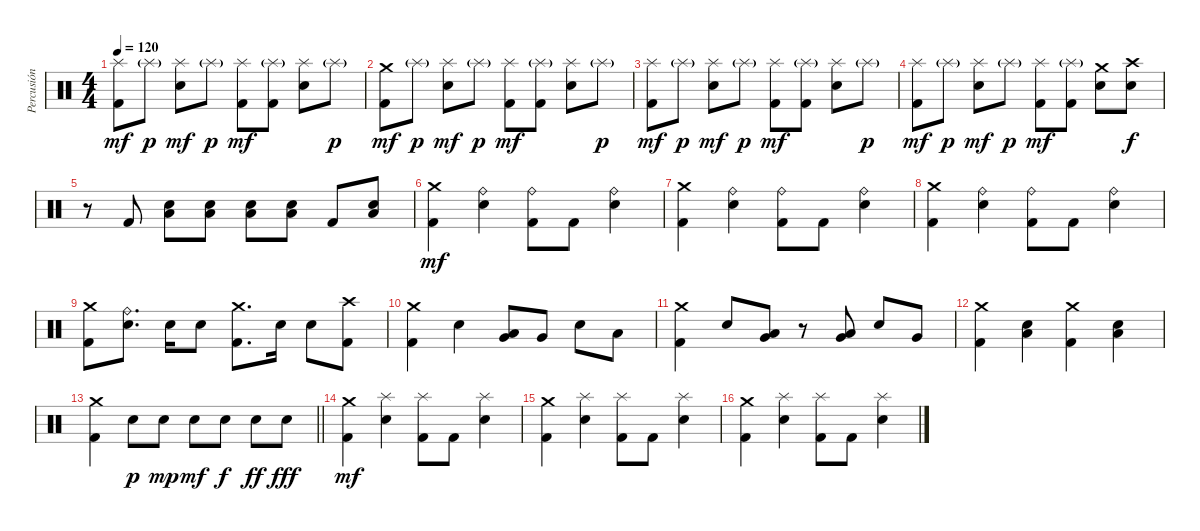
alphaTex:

\track ("Percusión" "Percusión") {instrument percussion}
\staff {score}
\articulation defaults
\ts (4 4)
\tempo 120
\clef neutral
\ks c
("Splash (hit)" "Kick (hit) 2").8{dy mf} "Splash (hit)"{g}.8{dy p} ("Splash (hit)" "Electric Snare (hit)").8{dy mf} "Splash (hit)"{g}.8{dy p} ("Splash (hit)" "Kick (hit) 2").8{dy mf} ("Splash (hit)"{g} "Kick (hit) 2").8 ("Splash (hit)" "Electric Snare (hit)").8 "Splash (hit)"{g}.8{dy p} |
("Crash medium (hit)" "Kick (hit) 2").8{dy mf} "Splash (hit)"{g}.8{dy p} ("Splash (hit)" "Electric Snare (hit)").8{dy mf} "Splash (hit)"{g}.8{dy p} ("Splash (hit)" "Kick (hit) 2").8{dy mf} ("Splash (hit)"{g} "Kick (hit) 2").8 ("Splash (hit)" "Electric Snare (hit)").8 "Splash (hit)"{g}.8{dy p} |
("Splash (hit)" "Kick (hit) 2").8{dy mf} "Splash (hit)"{g}.8{dy p} ("Splash (hit)" "Electric Snare (hit)").8{dy mf} "Splash (hit)"{g}.8{dy p} ("Splash (hit)" "Kick (hit) 2").8{dy mf} ("Splash (hit)"{g} "Kick (hit) 2").8 ("Splash (hit)" "Electric Snare (hit)").8 "Splash (hit)"{g}.8{dy p} |
("Splash (hit)" "Kick (hit) 2").8{dy mf} "Splash (hit)"{g}.8{dy p} ("Splash (hit)" "Electric Snare (hit)").8{dy mf} "Splash (hit)"{g}.8{dy p} ("Splash (hit)" "Kick (hit) 2").8{dy mf} ("Splash (hit)"{g} "Kick (hit) 2").8 ("Crash medium (hit)" "Electric Snare (hit)").8 ("Crash high (hit)" "Electric Snare (hit)").8{dy f} |
r.8 "Kick (hit) 2".8 ("Low Floor Tom (hit)" "Electric Snare (hit)").8 ("Low Floor Tom (hit)" "Electric Snare (hit)").8 ("Low Floor Tom (hit)" "Electric Snare (hit)").8 ("Low Floor Tom (hit)" "Electric Snare (hit)").8 "Kick (hit) 2".8 ("Low Floor Tom (hit)" "Electric Snare (hit)").8 |
("Crash medium (hit)" "Kick (hit) 2").4{dy mf} ("Ride (bell)" "Electric Snare (hit)").4 ("Ride (bell)" "Kick (hit) 2").8 "Kick (hit) 2".8 ("Ride (bell)" "Electric Snare (hit)").4 |
("Crash medium (hit)" "Kick (hit) 2").4 ("Ride (bell)" "Electric Snare (hit)").4 ("Ride (bell)" "Kick (hit) 2").8 "Kick (hit) 2".8 ("Ride (bell)" "Electric Snare (hit)").4 |
("Crash medium (hit)" "Kick (hit) 2").4 ("Ride (bell)" "Electric Snare (hit)").4 ("Ride (bell)" "Kick (hit) 2").8 "Kick (hit) 2".8 ("Ride (bell)" "Electric Snare (hit)").4 |
("Crash medium (hit)" "Kick (hit) 2").8 ("Ride (bell)" "Electric Snare (hit)").8{d} "Electric Snare (hit)".16 "Electric Snare (hit)".8 ("Crash medium (hit)" "Kick (hit) 2").8{d} "Electric Snare (hit)".16 "Electric Snare (hit)".8 ("Crash high (hit)" "Kick (hit) 2").8 |
("Crash medium (hit)" "Kick (hit) 2").4 "Electric Snare (hit)".4 ("Very Low Tom (hit)" "Low Tom (hit)").8 "Very Low Tom (hit)".8 "Electric Snare (hit)".8 "Low Tom (hit)".8 |
("Crash medium (hit)" "Kick (hit) 2").4 "Electric Snare (hit)".8 ("Low Tom (hit)" "Very Low Tom (hit)").8 r.8 ("Low Tom (hit)" "Very Low Tom (hit)").8 "Electric Snare (hit)".8 "Very Low Tom (hit)".8 |
("Crash medium (hit)" "Kick (hit) 2").4 ("Low Floor Tom (hit)" "Electric Snare (hit)").4 ("Crash medium (hit)" "Kick (hit) 2").4 ("Low Floor Tom (hit)" "Electric Snare (hit)").4 |
\barLineRight lightlight
("Crash medium (hit)" "Kick (hit) 2").4 "Electric Snare (hit)".8{dy p} "Electric Snare (hit)".8{dy mp} "Electric Snare (hit)".8{dy mf} "Electric Snare (hit)".8{dy f} "Electric Snare (hit)".8{dy ff} "Electric Snare (hit)".8{dy fff} |
("Crash medium (hit)" "Kick (hit) 2").4{dy mf} ("Splash (hit)" "Electric Snare (hit)").4 ("Splash (hit)" "Kick (hit) 2").8 "Kick (hit) 2".8 ("Splash (hit)" "Electric Snare (hit)").4 |
("Crash medium (hit)" "Kick (hit) 2").4 ("Splash (hit)" "Electric Snare (hit)").4 ("Splash (hit)" "Kick (hit) 2").8 "Kick (hit) 2".8 ("Splash (hit)" "Electric Snare (hit)").4 |
("Crash medium (hit)" "Kick (hit) 2").4 ("Splash (hit)" "Electric Snare (hit)").4 ("Splash (hit)" "Kick (hit) 2").8 "Kick (hit) 2".8 ("Splash (hit)" "Electric Snare (hit)").4
